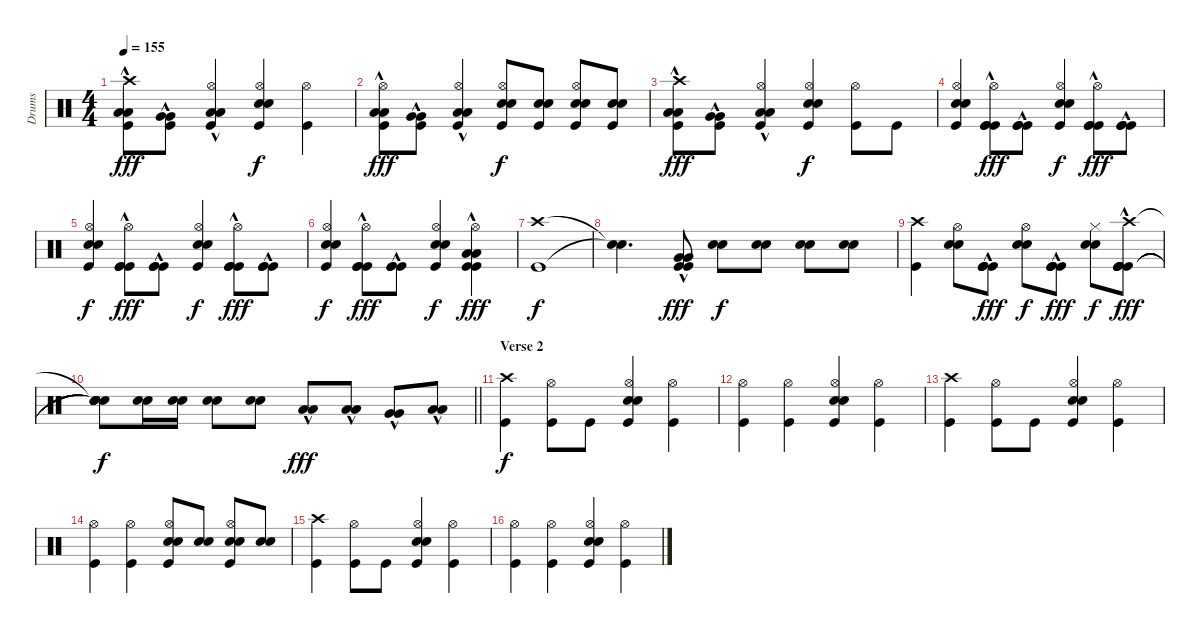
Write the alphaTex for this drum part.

\track ("Drums" "Drums") {instrument percussion}
\staff {score}
\articulation defaults
\ts (4 4)
\tempo 155
\clef neutral
\ks c
("Crash high (hit)" "Low Tom (hit)"{hac} "Low Tom (hit)"{hac} "Kick (hit)").8{dy fff} ("Very Low Tom (hit)"{hac} "Very Low Tom (hit)"{hac} "Kick (hit)").8 ("Hi-Hat (open)" "Low Floor Tom (hit)"{hac} "Low Floor Tom (hit)"{hac} "Kick (hit)").4 ("Hi-Hat (open)" "Snare (hit) 2" "Electric Snare (hit)" "Kick (hit)").4{dy f} ("Hi-Hat (open)" "Kick (hit)").4 |
("Hi-Hat (open)" "Low Tom (hit)"{hac} "Low Tom (hit)"{hac} "Kick (hit)").8{dy fff} ("Very Low Tom (hit)"{hac} "Very Low Tom (hit)"{hac} "Kick (hit)").8 ("Hi-Hat (open)" "Low Floor Tom (hit)"{hac} "Low Floor Tom (hit)"{hac} "Kick (hit)").4 ("Hi-Hat (open)" "Snare (hit) 2" "Electric Snare (hit)" "Kick (hit)").8{dy f} ("Snare (hit) 2" "Electric Snare (hit)" "Kick (hit)").8 ("Hi-Hat (open)" "Snare (hit) 2" "Electric Snare (hit)" "Kick (hit)").8 ("Snare (hit) 2" "Electric Snare (hit)" "Kick (hit)").8 |
("Crash high (hit)" "Low Tom (hit)"{hac} "Low Tom (hit)"{hac} "Kick (hit)").8{dy fff} ("Very Low Tom (hit)"{hac} "Very Low Tom (hit)"{hac} "Kick (hit)").8 ("Hi-Hat (open)" "Low Floor Tom (hit)"{hac} "Low Floor Tom (hit)"{hac} "Kick (hit)").4 ("Hi-Hat (open)" "Snare (hit) 2" "Electric Snare (hit)" "Kick (hit)").4{dy f} ("Hi-Hat (open)" "Kick (hit)").8 "Kick (hit)".8 |
("Hi-Hat (open)" "Snare (hit) 2" "Electric Snare (hit)" "Kick (hit)").4 ("Hi-Hat (open)" "Kick (hit)"{hac} "Kick (hit)"{hac} "Kick (hit)"{hac}).8{dy fff} ("Kick (hit)"{hac} "Kick (hit)"{hac} "Kick (hit)"{hac}).8 ("Hi-Hat (open)" "Snare (hit) 2" "Electric Snare (hit)" "Kick (hit)").4{dy f} ("Hi-Hat (open)" "Kick (hit)"{hac} "Kick (hit)"{hac} "Kick (hit)"{hac}).8{dy fff} ("Kick (hit)"{hac} "Kick (hit)"{hac} "Kick (hit)"{hac}).8 |
("Hi-Hat (open)" "Snare (hit) 2" "Electric Snare (hit)" "Kick (hit)").4{dy f} ("Hi-Hat (open)" "Kick (hit)"{hac} "Kick (hit)"{hac} "Kick (hit)"{hac}).8{dy fff} ("Kick (hit)"{hac} "Kick (hit)"{hac} "Kick (hit)"{hac}).8 ("Hi-Hat (open)" "Snare (hit) 2" "Electric Snare (hit)" "Kick (hit)").4{dy f} ("Hi-Hat (open)" "Kick (hit)"{hac} "Kick (hit)"{hac} "Kick (hit)"{hac}).8{dy fff} ("Kick (hit)"{hac} "Kick (hit)"{hac} "Kick (hit)"{hac}).8 |
("Hi-Hat (open)" "Snare (hit) 2" "Electric Snare (hit)" "Kick (hit)").4{dy f} ("Hi-Hat (open)" "Kick (hit)"{hac} "Kick (hit)"{hac} "Kick (hit)"{hac}).8{dy fff} ("Kick (hit)"{hac} "Kick (hit)"{hac} "Kick (hit)"{hac}).8 ("Hi-Hat (open)" "Snare (hit) 2" "Electric Snare (hit)" "Kick (hit)").4{dy f} ("Hi-Hat (open)" "Low Tom (hit)"{hac} "Low Tom (hit)"{hac} "Kick (hit)"{hac} "Kick (hit)"{hac}).4{bu 120 dy fff} |
("Crash high (hit)" "Kick (hit)").1{dy f} |
("Snare (hit)"{t} "Snare (hit)"{t}).4{d} ("Very Low Tom (hit)"{hac} "Very Low Tom (hit)"{hac} "Kick (hit)"{hac} "Kick (hit)"{hac}).8{dy fff} ("Snare (hit) 2" "Electric Snare (hit)").8{dy f} ("Snare (hit) 2" "Electric Snare (hit)").8 ("Snare (hit) 2" "Electric Snare (hit)").8 ("Snare (hit) 2" "Electric Snare (hit)").8 |
("Crash high (hit)" "Kick (hit)").4 ("Hi-Hat (open)" "Snare (hit) 2" "Electric Snare (hit)").8 ("Kick (hit)"{hac} "Kick (hit)"{hac} "Kick (hit)"{hac} "Kick (hit)"{hac}).8{dy fff} ("Hi-Hat (open)" "Snare (hit) 2" "Electric Snare (hit)").8{dy f} ("Kick (hit)"{hac} "Kick (hit)"{hac} "Kick (hit)"{hac} "Kick (hit)"{hac}).8{dy fff} ("Hi-Hat (closed)" "Snare (hit) 2" "Electric Snare (hit)").8{dy f} ("Crash high (hit)" "Kick (hit)"{hac} "Kick (hit)"{hac} "Kick (hit)"{hac} "Kick (hit)"{hac}).8{dy fff} |
\barLineRight lightlight
("Snare (hit)"{t} "Snare (hit)"{t} "Snare (hit)"{t} "Snare (hit)"{t} "Snare (hit)"{t}).8{dy f} ("Snare (hit) 2" "Electric Snare (hit)").16 ("Snare (hit) 2" "Electric Snare (hit)").16 ("Snare (hit) 2" "Electric Snare (hit)").8 ("Snare (hit) 2" "Electric Snare (hit)").8 ("Low Tom (hit)"{hac} "Low Tom (hit)"{hac}).8{dy fff} ("Low Tom (hit)"{hac} "Low Tom (hit)"{hac}).8 ("Very Low Tom (hit)"{hac} "Very Low Tom (hit)"{hac}).8 ("Low Floor Tom (hit)"{hac} "Low Floor Tom (hit)"{hac}).8 |
\section ("" "Verse 2")
("Crash high (hit)" "Kick (hit)").4{dy f} ("Hi-Hat (open)" "Kick (hit)").8 "Kick (hit)".8 ("Hi-Hat (open)" "Snare (hit) 2" "Electric Snare (hit)" "Kick (hit)").4 ("Hi-Hat (open)" "Kick (hit)").4 |
("Hi-Hat (open)" "Kick (hit)").4 ("Hi-Hat (open)" "Kick (hit)").4 ("Hi-Hat (open)" "Snare (hit) 2" "Electric Snare (hit)" "Kick (hit)").4 ("Hi-Hat (open)" "Kick (hit)").4 |
("Crash high (hit)" "Kick (hit)").4 ("Hi-Hat (open)" "Kick (hit)").8 "Kick (hit)".8 ("Hi-Hat (open)" "Snare (hit) 2" "Electric Snare (hit)" "Kick (hit)").4 ("Hi-Hat (open)" "Kick (hit)").4 |
("Hi-Hat (open)" "Kick (hit)").4 ("Hi-Hat (open)" "Kick (hit)").4 ("Hi-Hat (open)" "Snare (hit) 2" "Electric Snare (hit)" "Kick (hit)").8 ("Snare (hit) 2" "Electric Snare (hit)").8 ("Hi-Hat (open)" "Snare (hit) 2" "Electric Snare (hit)" "Kick (hit)").8 ("Snare (hit) 2" "Electric Snare (hit)").8 |
("Crash high (hit)" "Kick (hit)").4 ("Hi-Hat (open)" "Kick (hit)").8 "Kick (hit)".8 ("Hi-Hat (open)" "Snare (hit) 2" "Electric Snare (hit)" "Kick (hit)").4 ("Hi-Hat (open)" "Kick (hit)").4 |
("Hi-Hat (open)" "Kick (hit)").4 ("Hi-Hat (open)" "Kick (hit)").4 ("Hi-Hat (open)" "Snare (hit) 2" "Electric Snare (hit)" "Kick (hit)").4 ("Hi-Hat (open)" "Kick (hit)").4
